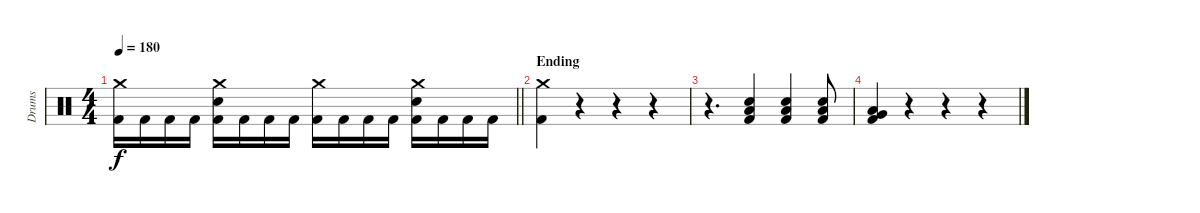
\track ("Drums" "Drums") {instrument percussion}
\staff {score}
\articulation defaults
\ts (4 4)
\tempo 180
\clef neutral
\barLineRight lightlight
\ks c
("Crash medium (hit)" "Kick (hit) 2").16{dy f} "Kick (hit) 2".16 "Kick (hit) 2".16 "Kick (hit) 2".16 ("Crash medium (hit)" "Electric Snare (hit)" "Kick (hit) 2").16 "Kick (hit) 2".16 "Kick (hit) 2".16 "Kick (hit) 2".16 ("Crash medium (hit)" "Kick (hit) 2").16 "Kick (hit) 2".16 "Kick (hit) 2".16 "Kick (hit) 2".16 ("Crash medium (hit)" "Electric Snare (hit)" "Kick (hit) 2").16 "Kick (hit) 2".16 "Kick (hit) 2".16 "Kick (hit) 2".16 |
\section ("" "Ending")
("Crash medium (hit)" "Kick (hit) 2").4 r.4 r.4 r.4 |
r.4{d} ("Electric Snare (hit)" "Low Floor Tom (hit)" "Kick (hit) 2").4 ("Electric Snare (hit)" "Low Floor Tom (hit)" "Kick (hit) 2").4 ("Electric Snare (hit)" "Low Floor Tom (hit)" "Kick (hit) 2").8 |
("Low Tom (hit)" "Very Low Tom (hit)" "Kick (hit) 2").4 r.4 r.4 r.4
